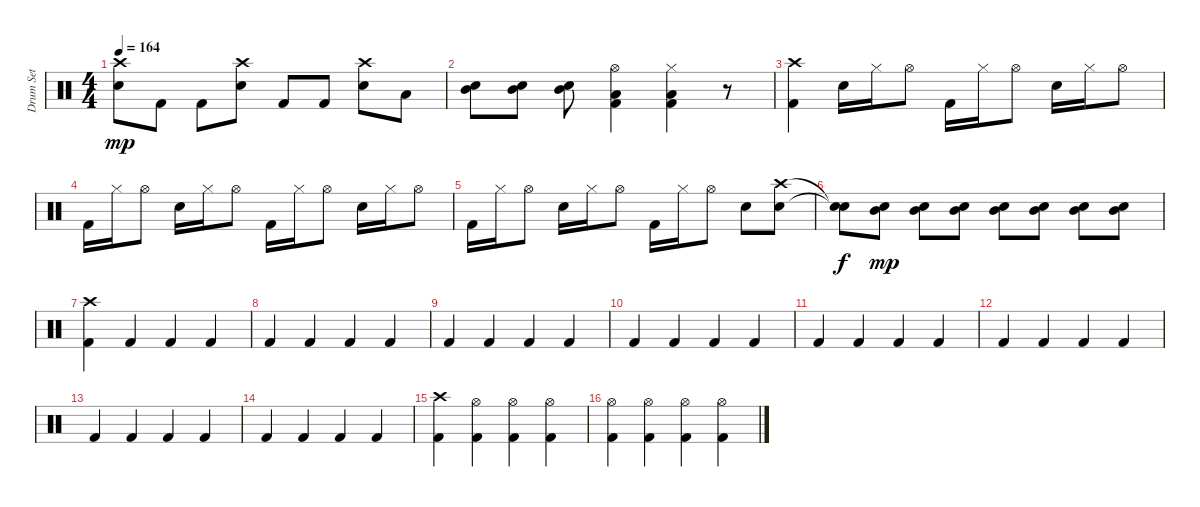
\track ("Drum Set" "Drum Set") {instrument percussion}
\staff {score}
\articulation defaults
\ts (4 4)
\tempo 164
\clef neutral
\ks c
("Snare (hit) 2" "Crash high (hit)").8{dy mp} "Kick (hit) 2".8 "Kick (hit) 2".8 ("Snare (hit) 2" "Crash high (hit)").8 "Kick (hit) 2".8 "Kick (hit) 2".8 ("Snare (hit) 2" "Crash high (hit)").8 "Low Tom (hit)".8 |
("Snare (hit) 2" "Mid Tom (hit)").8 ("Snare (hit) 2" "Mid Tom (hit)").8 ("Snare (hit) 2" "Mid Tom (hit)").8 ("Kick (hit) 2" "Low Tom (hit)" "Hi-Hat (open)").4 ("Kick (hit) 2" "Low Tom (hit)" "Hi-Hat (closed)").4 r.8 |
("Kick (hit) 2" "Crash high (hit)").4 "Snare (hit) 2".16 "Hi-Hat (closed)".16 "Hi-Hat (open)".8 "Kick (hit) 2".16 "Hi-Hat (closed)".16 "Hi-Hat (open)".8 "Snare (hit) 2".16 "Hi-Hat (closed)".16 "Hi-Hat (open)".8 |
"Kick (hit) 2".16 "Hi-Hat (closed)".16 "Hi-Hat (open)".8 "Snare (hit) 2".16 "Hi-Hat (closed)".16 "Hi-Hat (open)".8 "Kick (hit) 2".16 "Hi-Hat (closed)".16 "Hi-Hat (open)".8 "Snare (hit) 2".16 "Hi-Hat (closed)".16 "Hi-Hat (open)".8 |
"Kick (hit) 2".16 "Hi-Hat (closed)".16 "Hi-Hat (open)".8 "Snare (hit) 2".16 "Hi-Hat (closed)".16 "Hi-Hat (open)".8 "Kick (hit) 2".16 "Hi-Hat (closed)".16 "Hi-Hat (open)".8 "Snare (hit) 2".8 ("Snare (hit) 2" "Crash high (hit)").8 |
("Snare (hit)"{t} "Snare (hit)"{t}).8{dy f} ("Snare (hit) 2" "Mid Tom (hit)").8{dy mp} ("Snare (hit) 2" "Mid Tom (hit)").8 ("Snare (hit) 2" "Mid Tom (hit)").8 ("Snare (hit) 2" "Mid Tom (hit)").8 ("Snare (hit) 2" "Mid Tom (hit)").8 ("Snare (hit) 2" "Mid Tom (hit)").8 ("Snare (hit) 2" "Mid Tom (hit)").8 |
("Kick (hit) 2" "Crash high (hit)").4 "Kick (hit) 2".4 "Kick (hit) 2".4 "Kick (hit) 2".4 |
"Kick (hit) 2".4 "Kick (hit) 2".4 "Kick (hit) 2".4 "Kick (hit) 2".4 |
"Kick (hit) 2".4 "Kick (hit) 2".4 "Kick (hit) 2".4 "Kick (hit) 2".4 |
"Kick (hit) 2".4 "Kick (hit) 2".4 "Kick (hit) 2".4 "Kick (hit) 2".4 |
"Kick (hit) 2".4 "Kick (hit) 2".4 "Kick (hit) 2".4 "Kick (hit) 2".4 |
"Kick (hit) 2".4 "Kick (hit) 2".4 "Kick (hit) 2".4 "Kick (hit) 2".4 |
"Kick (hit) 2".4 "Kick (hit) 2".4 "Kick (hit) 2".4 "Kick (hit) 2".4 |
"Kick (hit) 2".4 "Kick (hit) 2".4 "Kick (hit) 2".4 "Kick (hit) 2".4 |
("Kick (hit) 2" "Crash high (hit)").4 ("Kick (hit) 2" "Hi-Hat (open)").4 ("Kick (hit) 2" "Hi-Hat (open)").4 ("Kick (hit) 2" "Hi-Hat (open)").4 |
("Kick (hit) 2" "Hi-Hat (open)").4 ("Kick (hit) 2" "Hi-Hat (open)").4 ("Kick (hit) 2" "Hi-Hat (open)").4 ("Kick (hit) 2" "Hi-Hat (open)").4
